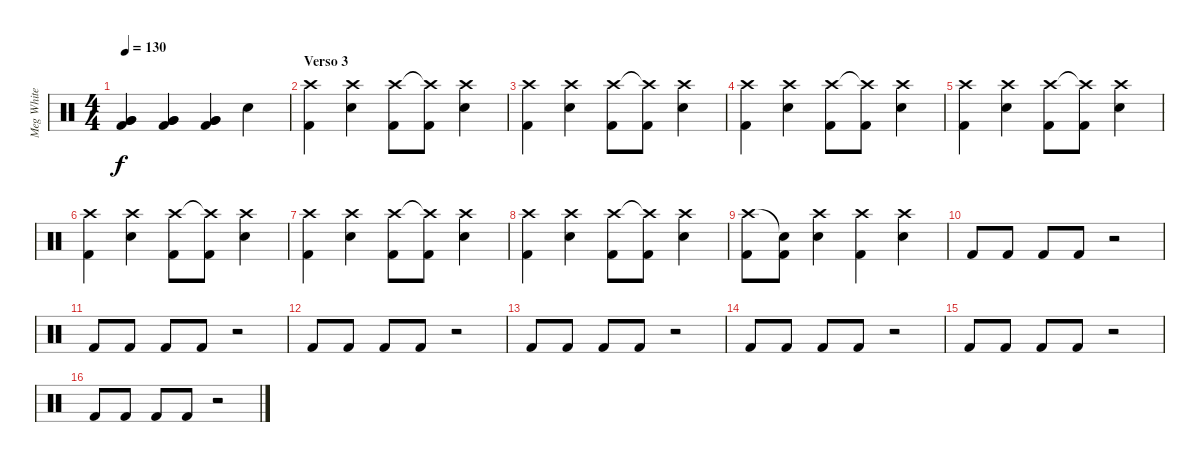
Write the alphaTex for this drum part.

\track ("Meg White" "Meg White") {instrument percussion}
\staff {score}
\articulation defaults
\ts (4 4)
\tempo 130
\clef neutral
\ks c
("Very Low Tom (hit)" "Kick (hit) 2" "Very Low Tom (hit)").4{dy f} ("Very Low Tom (hit)" "Kick (hit) 2" "Very Low Tom (hit)").4 ("Very Low Tom (hit)" "Kick (hit) 2" "Very Low Tom (hit)").4 "Snare (hit) 2".4 |
\section ("" "Verso 3")
("Crash high (hit)" "Kick (hit) 2").4 ("Crash high (hit)" "Snare (hit) 2").4 ("Crash high (hit)" "Kick (hit) 2").8 ("Crash high (hit)"{t} "Kick (hit) 2").8 ("Crash high (hit)" "Snare (hit) 2").4 |
("Crash high (hit)" "Kick (hit) 2").4 ("Crash high (hit)" "Snare (hit) 2").4 ("Crash high (hit)" "Kick (hit) 2").8 ("Crash high (hit)"{t} "Kick (hit) 2").8 ("Crash high (hit)" "Snare (hit) 2").4 |
("Crash high (hit)" "Kick (hit) 2").4 ("Crash high (hit)" "Snare (hit) 2").4 ("Crash high (hit)" "Kick (hit) 2").8 ("Crash high (hit)"{t} "Kick (hit) 2").8 ("Crash high (hit)" "Snare (hit) 2").4 |
("Crash high (hit)" "Kick (hit) 2").4 ("Crash high (hit)" "Snare (hit) 2").4 ("Crash high (hit)" "Kick (hit) 2").8 ("Crash high (hit)"{t} "Kick (hit) 2").8 ("Crash high (hit)" "Snare (hit) 2").4 |
("Crash high (hit)" "Kick (hit) 2").4 ("Crash high (hit)" "Snare (hit) 2").4 ("Crash high (hit)" "Kick (hit) 2").8 ("Crash high (hit)"{t} "Kick (hit) 2").8 ("Crash high (hit)" "Snare (hit) 2").4 |
("Crash high (hit)" "Kick (hit) 2").4 ("Crash high (hit)" "Snare (hit) 2").4 ("Crash high (hit)" "Kick (hit) 2").8 ("Crash high (hit)"{t} "Kick (hit) 2").8 ("Crash high (hit)" "Snare (hit) 2").4 |
("Crash high (hit)" "Kick (hit) 2").4 ("Crash high (hit)" "Snare (hit) 2").4 ("Crash high (hit)" "Kick (hit) 2").8 ("Crash high (hit)"{t} "Kick (hit) 2").8 ("Crash high (hit)" "Snare (hit) 2").4 |
("Crash high (hit)" "Kick (hit) 2").8 ("Snare (hit)"{t} "Kick (hit) 2").8 ("Crash high (hit)" "Snare (hit) 2").4 ("Crash high (hit)" "Kick (hit) 2").4 ("Crash high (hit)" "Snare (hit) 2").4 |
"Kick (hit) 2".8 "Kick (hit) 2".8 "Kick (hit) 2".8 "Kick (hit) 2".8 r.2 |
"Kick (hit) 2".8 "Kick (hit) 2".8 "Kick (hit) 2".8 "Kick (hit) 2".8 r.2 |
"Kick (hit) 2".8 "Kick (hit) 2".8 "Kick (hit) 2".8 "Kick (hit) 2".8 r.2 |
"Kick (hit) 2".8 "Kick (hit) 2".8 "Kick (hit) 2".8 "Kick (hit) 2".8 r.2 |
"Kick (hit) 2".8 "Kick (hit) 2".8 "Kick (hit) 2".8 "Kick (hit) 2".8 r.2 |
"Kick (hit) 2".8 "Kick (hit) 2".8 "Kick (hit) 2".8 "Kick (hit) 2".8 r.2 |
"Kick (hit) 2".8 "Kick (hit) 2".8 "Kick (hit) 2".8 "Kick (hit) 2".8 r.2
